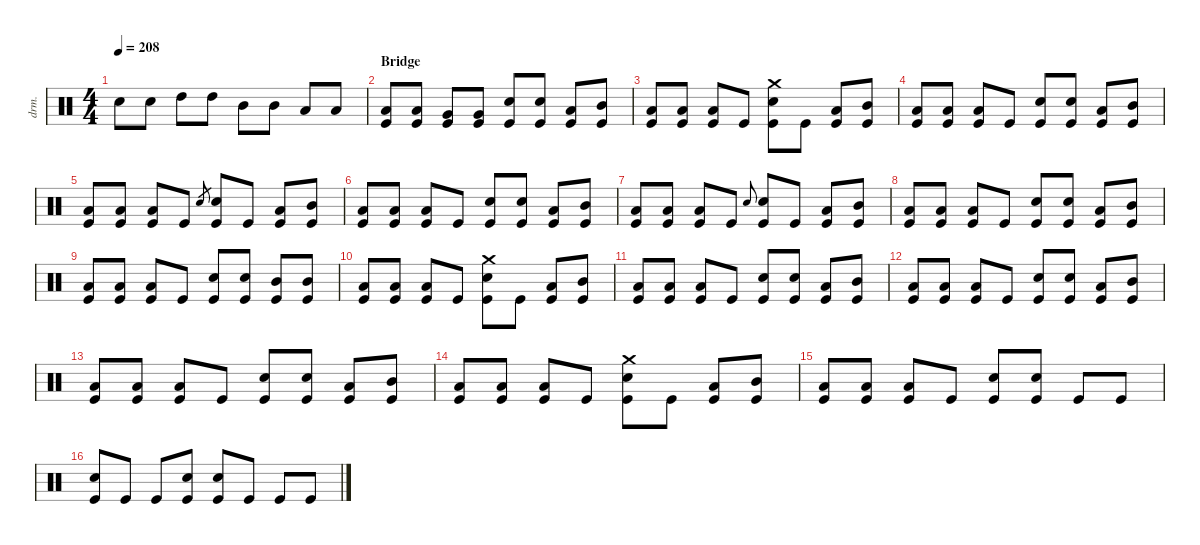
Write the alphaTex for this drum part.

\defaultSystemsLayout 4
\hideDynamics
\bracketExtendMode nobrackets
\otherSystemsTrackNameOrientation horizontal
\track ("Drums" "drm.") {multiBarRest instrument percussion}
\staff
\articulation defaults
\ts (4 4)
\tempo 208
\clef neutral
\ks c "Snare (hit) 2".8{dy f} "Snare (hit) 2".8 "High Tom (hit)".8{dy ff} "High Tom (hit)".8 "Mid Tom (hit)".8 "Mid Tom (hit)".8 "Low Tom (hit)".8 "Low Tom (hit)".8
|
\section ("" "Bridge")
("Kick (hit)" "Low Tom (hit)").8{dy f} ("Kick (hit)" "Low Tom (hit)").8 ("Kick (hit)" "Very Low Tom (hit)").8 ("Kick (hit)" "Very Low Tom (hit)").8 ("Kick (hit)" "Snare (hit) 2").8 ("Kick (hit)" "Snare (hit) 2").8 ("Kick (hit)" "Low Tom (hit)").8 ("Kick (hit)" "Mid Tom (hit)").8 |
("Kick (hit)" "Low Tom (hit)").8 ("Kick (hit)" "Low Tom (hit)").8 ("Kick (hit)" "Low Tom (hit)").8 "Kick (hit)".8 ("Kick (hit)" "Snare (hit) 2" "Crash medium (hit)").8 "Kick (hit)".8 ("Kick (hit)" "Low Tom (hit)").8 ("Kick (hit)" "Mid Tom (hit)").8 |
("Kick (hit)" "Low Tom (hit)").8 ("Kick (hit)" "Low Tom (hit)").8 ("Kick (hit)" "Low Tom (hit)").8 "Kick (hit)".8 ("Kick (hit)" "Snare (hit) 2").8 ("Kick (hit)" "Snare (hit) 2").8 ("Kick (hit)" "Low Tom (hit)").8 ("Kick (hit)" "Mid Tom (hit)").8 |
("Kick (hit)" "Low Tom (hit)").8 ("Kick (hit)" "Low Tom (hit)").8 ("Kick (hit)" "Low Tom (hit)").8 "Kick (hit)".8 "Snare (hit) 2".8{gr} ("Kick (hit)" "Snare (hit) 2").8 "Kick (hit)".8 ("Kick (hit)" "Low Tom (hit)").8 ("Kick (hit)" "Mid Tom (hit)").8 |
("Kick (hit)" "Low Tom (hit)").8 ("Kick (hit)" "Low Tom (hit)").8 ("Kick (hit)" "Low Tom (hit)").8 "Kick (hit)".8 ("Kick (hit)" "Snare (hit) 2").8 ("Kick (hit)" "Snare (hit) 2").8 ("Kick (hit)" "Low Tom (hit)").8 ("Kick (hit)" "Mid Tom (hit)").8 |
("Kick (hit)" "Low Tom (hit)").8 ("Kick (hit)" "Low Tom (hit)").8 ("Kick (hit)" "Low Tom (hit)").8 "Kick (hit)".8 "Snare (hit) 2".8{gr onbeat} ("Kick (hit)" "Snare (hit) 2").8 "Kick (hit)".8 ("Kick (hit)" "Low Tom (hit)").8 ("Kick (hit)" "Mid Tom (hit)").8 |
("Kick (hit)" "Low Tom (hit)").8 ("Kick (hit)" "Low Tom (hit)").8 ("Kick (hit)" "Low Tom (hit)").8 "Kick (hit)".8 ("Kick (hit)" "Snare (hit) 2").8 ("Kick (hit)" "Snare (hit) 2").8 ("Kick (hit)" "Low Tom (hit)").8 ("Kick (hit)" "Mid Tom (hit)").8 |
("Kick (hit)" "Low Tom (hit)").8 ("Kick (hit)" "Low Tom (hit)").8 ("Kick (hit)" "Low Tom (hit)").8 "Kick (hit)".8 ("Kick (hit)" "Snare (hit) 2").8 ("Kick (hit)" "Snare (hit) 2").8 ("Kick (hit)" "Mid Tom (hit)").8 ("Kick (hit)" "Mid Tom (hit)").8 |
("Kick (hit)" "Low Tom (hit)").8 ("Kick (hit)" "Low Tom (hit)").8 ("Kick (hit)" "Low Tom (hit)").8 "Kick (hit)".8 ("Kick (hit)" "Snare (hit) 2" "Crash medium (hit)").8 "Kick (hit)".8 ("Kick (hit)" "Low Tom (hit)").8 ("Kick (hit)" "Mid Tom (hit)").8 |
("Kick (hit)" "Low Tom (hit)").8 ("Kick (hit)" "Low Tom (hit)").8 ("Kick (hit)" "Low Tom (hit)").8 "Kick (hit)".8 ("Kick (hit)" "Snare (hit) 2").8 ("Kick (hit)" "Snare (hit) 2").8 ("Kick (hit)" "Low Tom (hit)").8 ("Kick (hit)" "Mid Tom (hit)").8 |
("Kick (hit)" "Low Tom (hit)").8 ("Kick (hit)" "Low Tom (hit)").8 ("Kick (hit)" "Low Tom (hit)").8 "Kick (hit)".8 ("Kick (hit)" "Snare (hit) 2").8 ("Kick (hit)" "Snare (hit) 2").8 ("Kick (hit)" "Low Tom (hit)").8 ("Kick (hit)" "Mid Tom (hit)").8 |
("Kick (hit)" "Low Tom (hit)").8 ("Kick (hit)" "Low Tom (hit)").8 ("Kick (hit)" "Low Tom (hit)").8 "Kick (hit)".8 ("Kick (hit)" "Snare (hit) 2").8 ("Kick (hit)" "Snare (hit) 2").8 ("Kick (hit)" "Low Tom (hit)").8 ("Kick (hit)" "Mid Tom (hit)").8 |
("Kick (hit)" "Low Tom (hit)").8 ("Kick (hit)" "Low Tom (hit)").8 ("Kick (hit)" "Low Tom (hit)").8 "Kick (hit)".8 ("Kick (hit)" "Snare (hit) 2" "Crash medium (hit)").8 "Kick (hit)".8 ("Kick (hit)" "Low Tom (hit)").8 ("Kick (hit)" "Mid Tom (hit)").8 |
("Kick (hit)" "Low Tom (hit)").8 ("Kick (hit)" "Low Tom (hit)").8 ("Kick (hit)" "Low Tom (hit)").8 "Kick (hit)".8 ("Kick (hit)" "Snare (hit) 2").8 ("Kick (hit)" "Snare (hit) 2").8 "Kick (hit)".8 "Kick (hit)".8 |
("Kick (hit)" "Snare (hit) 2").8 "Kick (hit)".8 "Kick (hit)".8 ("Kick (hit)" "Snare (hit) 2").8 ("Kick (hit)" "Snare (hit) 2").8 "Kick (hit)".8 "Kick (hit)".8 "Kick (hit)".8
